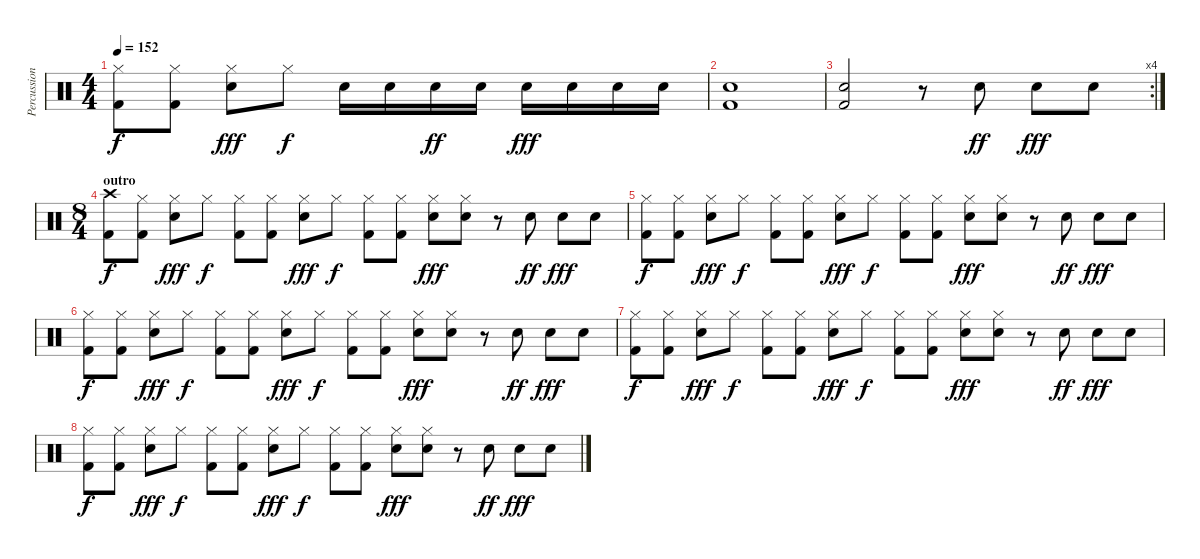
\track ("Percussion" "Percussion") {instrument percussion}
\staff {score}
\articulation defaults
\ts (4 4)
\tempo 152
\clef neutral
\ks c
("Kick (hit) 2" "Hi-Hat (closed)").8{dy f} ("Kick (hit) 2" "Hi-Hat (closed)").8 ("Electric Snare (hit)" "Hi-Hat (closed)").8{dy fff} "Hi-Hat (closed)".8{dy f} "Electric Snare (hit)".16 "Electric Snare (hit)".16 "Electric Snare (hit)".16{dy ff} "Electric Snare (hit)".16 "Electric Snare (hit)".16{dy fff} "Electric Snare (hit)".16 "Electric Snare (hit)".16 "Electric Snare (hit)".16 |
("Kick (hit) 2" "Electric Snare (hit)").1 |
\rc 4
("Kick (hit) 2" "Electric Snare (hit)").2 r.8 "Electric Snare (hit)".8{dy ff} "Electric Snare (hit)".8{dy fff} "Electric Snare (hit)".8 |
\ts (8 4)
\section ("" "outro")
("Kick (hit) 2" "Crash high (hit)").8{dy f} ("Kick (hit) 2" "Hi-Hat (closed)").8 ("Electric Snare (hit)" "Hi-Hat (closed)").8{dy fff} "Hi-Hat (closed)".8{dy f} ("Kick (hit) 2" "Hi-Hat (closed)").8 ("Kick (hit) 2" "Hi-Hat (closed)").8 ("Electric Snare (hit)" "Hi-Hat (closed)").8{dy fff} "Hi-Hat (closed)".8{dy f} ("Kick (hit) 2" "Hi-Hat (closed)").8 ("Kick (hit) 2" "Hi-Hat (closed)").8 ("Electric Snare (hit)" "Hi-Hat (closed)").8{dy fff} ("Electric Snare (hit)" "Hi-Hat (closed)").8 r.8 "Electric Snare (hit)".8{dy ff} "Electric Snare (hit)".8{dy fff} "Electric Snare (hit)".8 |
("Kick (hit) 2" "Hi-Hat (closed)").8{dy f} ("Kick (hit) 2" "Hi-Hat (closed)").8 ("Electric Snare (hit)" "Hi-Hat (closed)").8{dy fff} "Hi-Hat (closed)".8{dy f} ("Kick (hit) 2" "Hi-Hat (closed)").8 ("Kick (hit) 2" "Hi-Hat (closed)").8 ("Electric Snare (hit)" "Hi-Hat (closed)").8{dy fff} "Hi-Hat (closed)".8{dy f} ("Kick (hit) 2" "Hi-Hat (closed)").8 ("Kick (hit) 2" "Hi-Hat (closed)").8 ("Electric Snare (hit)" "Hi-Hat (closed)").8{dy fff} ("Electric Snare (hit)" "Hi-Hat (closed)").8 r.8 "Electric Snare (hit)".8{dy ff} "Electric Snare (hit)".8{dy fff} "Electric Snare (hit)".8 |
("Kick (hit) 2" "Hi-Hat (closed)").8{dy f volume 15} ("Kick (hit) 2" "Hi-Hat (closed)").8 ("Electric Snare (hit)" "Hi-Hat (closed)").8{dy fff} "Hi-Hat (closed)".8{dy f} ("Kick (hit) 2" "Hi-Hat (closed)").8 ("Kick (hit) 2" "Hi-Hat (closed)").8 ("Electric Snare (hit)" "Hi-Hat (closed)").8{dy fff} "Hi-Hat (closed)".8{dy f} ("Kick (hit) 2" "Hi-Hat (closed)").8{volume 14} ("Kick (hit) 2" "Hi-Hat (closed)").8 ("Electric Snare (hit)" "Hi-Hat (closed)").8{dy fff} ("Electric Snare (hit)" "Hi-Hat (closed)").8 r.8 "Electric Snare (hit)".8{dy ff} "Electric Snare (hit)".8{dy fff} "Electric Snare (hit)".8 |
("Kick (hit) 2" "Hi-Hat (closed)").8{dy f} ("Kick (hit) 2" "Hi-Hat (closed)").8 ("Electric Snare (hit)" "Hi-Hat (closed)").8{dy fff} "Hi-Hat (closed)".8{dy f} ("Kick (hit) 2" "Hi-Hat (closed)").8 ("Kick (hit) 2" "Hi-Hat (closed)").8 ("Electric Snare (hit)" "Hi-Hat (closed)").8{dy fff} "Hi-Hat (closed)".8{dy f} ("Kick (hit) 2" "Hi-Hat (closed)").8 ("Kick (hit) 2" "Hi-Hat (closed)").8 ("Electric Snare (hit)" "Hi-Hat (closed)").8{dy fff} ("Electric Snare (hit)" "Hi-Hat (closed)").8 r.8 "Electric Snare (hit)".8{dy ff} "Electric Snare (hit)".8{dy fff} "Electric Snare (hit)".8 |
("Kick (hit) 2" "Hi-Hat (closed)").8{dy f} ("Kick (hit) 2" "Hi-Hat (closed)").8 ("Electric Snare (hit)" "Hi-Hat (closed)").8{dy fff} "Hi-Hat (closed)".8{dy f} ("Kick (hit) 2" "Hi-Hat (closed)").8 ("Kick (hit) 2" "Hi-Hat (closed)").8 ("Electric Snare (hit)" "Hi-Hat (closed)").8{dy fff} "Hi-Hat (closed)".8{dy f} ("Kick (hit) 2" "Hi-Hat (closed)").8 ("Kick (hit) 2" "Hi-Hat (closed)").8 ("Electric Snare (hit)" "Hi-Hat (closed)").8{dy fff} ("Electric Snare (hit)" "Hi-Hat (closed)").8 r.8 "Electric Snare (hit)".8{dy ff} "Electric Snare (hit)".8{dy fff} "Electric Snare (hit)".8
